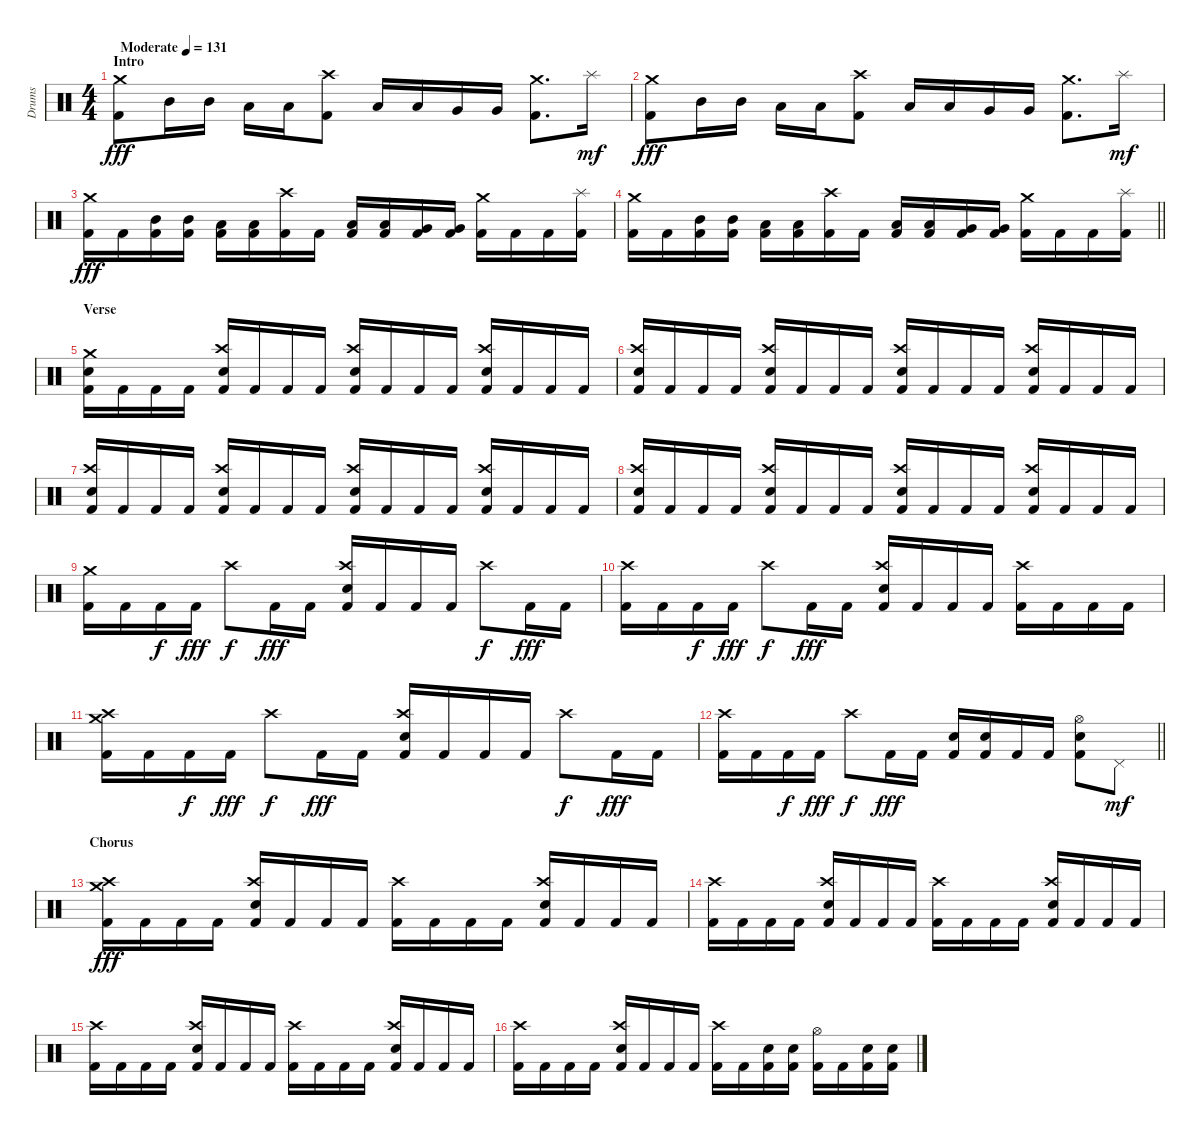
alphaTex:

\track ("Drums" "Drums") {instrument percussion}
\staff {score}
\articulation defaults
\ts (4 4)
\section ("" "Intro")
\tempo (131 "Moderate")
\clef neutral
\ks c
("Crash medium (hit)" "Kick (hit) 2").8{dy fff} "Mid Tom (hit)".16 "Mid Tom (hit)".16 "Low Tom (hit)".16 "Low Tom (hit)".16 ("Crash high (hit)" "Kick (hit) 2").8 "Low Tom (hit)".16 "Low Tom (hit)".16 "Very Low Tom (hit)".16 "Very Low Tom (hit)".16 ("Crash medium (hit)" "Kick (hit) 2").8{d} "Splash (hit)".16{dy mf} |
("Crash medium (hit)" "Kick (hit) 2").8{dy fff} "Mid Tom (hit)".16 "Mid Tom (hit)".16 "Low Tom (hit)".16 "Low Tom (hit)".16 ("Crash high (hit)" "Kick (hit) 2").8 "Low Tom (hit)".16 "Low Tom (hit)".16 "Very Low Tom (hit)".16 "Very Low Tom (hit)".16 ("Crash medium (hit)" "Kick (hit) 2").8{d} "Splash (hit)".16{dy mf} |
("Crash medium (hit)" "Kick (hit) 2").16{dy fff} "Kick (hit) 2".16 ("Mid Tom (hit)" "Kick (hit) 2").16 ("Mid Tom (hit)" "Kick (hit) 2").16 ("Low Tom (hit)" "Kick (hit) 2").16 ("Low Tom (hit)" "Kick (hit) 2").16 ("Crash high (hit)" "Kick (hit) 2").16 "Kick (hit) 2".16 ("Low Tom (hit)" "Kick (hit) 2").16 ("Low Tom (hit)" "Kick (hit) 2").16 ("Very Low Tom (hit)" "Kick (hit) 2").16 ("Very Low Tom (hit)" "Kick (hit) 2").16 ("Crash medium (hit)" "Kick (hit) 2").16 "Kick (hit) 2".16 "Kick (hit) 2".16 ("Splash (hit)" "Kick (hit) 2").16 |
\barLineRight lightlight
("Crash medium (hit)" "Kick (hit) 2").16 "Kick (hit) 2".16 ("Mid Tom (hit)" "Kick (hit) 2").16 ("Mid Tom (hit)" "Kick (hit) 2").16 ("Low Tom (hit)" "Kick (hit) 2").16 ("Low Tom (hit)" "Kick (hit) 2").16 ("Crash high (hit)" "Kick (hit) 2").16 "Kick (hit) 2".16 ("Low Tom (hit)" "Kick (hit) 2").16 ("Low Tom (hit)" "Kick (hit) 2").16 ("Very Low Tom (hit)" "Kick (hit) 2").16 ("Very Low Tom (hit)" "Kick (hit) 2").16 ("Crash medium (hit)" "Kick (hit) 2").16 "Kick (hit) 2".16 "Kick (hit) 2".16 ("Splash (hit)" "Kick (hit) 2").16 |
\section ("" "Verse")
("Crash medium (hit)" "Electric Snare (hit)" "Kick (hit) 2").16 "Kick (hit) 2".16 "Kick (hit) 2".16 "Kick (hit) 2".16 ("Crash high (hit)" "Electric Snare (hit)" "Kick (hit) 2").16 "Kick (hit) 2".16 "Kick (hit) 2".16 "Kick (hit) 2".16 ("Crash high (hit)" "Electric Snare (hit)" "Kick (hit) 2").16 "Kick (hit) 2".16 "Kick (hit) 2".16 "Kick (hit) 2".16 ("Crash high (hit)" "Electric Snare (hit)" "Kick (hit) 2").16 "Kick (hit) 2".16 "Kick (hit) 2".16 "Kick (hit) 2".16 |
("Crash high (hit)" "Electric Snare (hit)" "Kick (hit) 2").16 "Kick (hit) 2".16 "Kick (hit) 2".16 "Kick (hit) 2".16 ("Crash high (hit)" "Electric Snare (hit)" "Kick (hit) 2").16 "Kick (hit) 2".16 "Kick (hit) 2".16 "Kick (hit) 2".16 ("Crash high (hit)" "Electric Snare (hit)" "Kick (hit) 2").16 "Kick (hit) 2".16 "Kick (hit) 2".16 "Kick (hit) 2".16 ("Crash high (hit)" "Electric Snare (hit)" "Kick (hit) 2").16 "Kick (hit) 2".16 "Kick (hit) 2".16 "Kick (hit) 2".16 |
("Crash high (hit)" "Electric Snare (hit)" "Kick (hit) 2").16 "Kick (hit) 2".16 "Kick (hit) 2".16 "Kick (hit) 2".16 ("Crash high (hit)" "Electric Snare (hit)" "Kick (hit) 2").16 "Kick (hit) 2".16 "Kick (hit) 2".16 "Kick (hit) 2".16 ("Crash high (hit)" "Electric Snare (hit)" "Kick (hit) 2").16 "Kick (hit) 2".16 "Kick (hit) 2".16 "Kick (hit) 2".16 ("Crash high (hit)" "Electric Snare (hit)" "Kick (hit) 2").16 "Kick (hit) 2".16 "Kick (hit) 2".16 "Kick (hit) 2".16 |
("Crash high (hit)" "Electric Snare (hit)" "Kick (hit) 2").16 "Kick (hit) 2".16 "Kick (hit) 2".16 "Kick (hit) 2".16 ("Crash high (hit)" "Electric Snare (hit)" "Kick (hit) 2").16 "Kick (hit) 2".16 "Kick (hit) 2".16 "Kick (hit) 2".16 ("Crash high (hit)" "Electric Snare (hit)" "Kick (hit) 2").16 "Kick (hit) 2".16 "Kick (hit) 2".16 "Kick (hit) 2".16 ("Crash high (hit)" "Electric Snare (hit)" "Kick (hit) 2").16 "Kick (hit) 2".16 "Kick (hit) 2".16 "Kick (hit) 2".16 |
("Crash medium (hit)" "Kick (hit) 2").16 "Kick (hit) 2".16 "Kick (hit) 2".16{dy f} "Kick (hit) 2".16{dy fff} "Crash high (hit)".8{dy f} "Kick (hit) 2".16{dy fff} "Kick (hit) 2".16 ("Crash high (hit)" "Electric Snare (hit)" "Kick (hit) 2").16 "Kick (hit) 2".16 "Kick (hit) 2".16 "Kick (hit) 2".16 "Crash high (hit)".8{dy f} "Kick (hit) 2".16{dy fff} "Kick (hit) 2".16 |
("Crash high (hit)" "Kick (hit) 2").16 "Kick (hit) 2".16 "Kick (hit) 2".16{dy f} "Kick (hit) 2".16{dy fff} "Crash high (hit)".8{dy f} "Kick (hit) 2".16{dy fff} "Kick (hit) 2".16 ("Crash high (hit)" "Electric Snare (hit)" "Kick (hit) 2").16 "Kick (hit) 2".16 "Kick (hit) 2".16 "Kick (hit) 2".16 ("Crash high (hit)" "Kick (hit) 2").16 "Kick (hit) 2".16 "Kick (hit) 2".16 "Kick (hit) 2".16 |
("Crash medium (hit)" "Crash high (hit)" "Kick (hit) 2").16 "Kick (hit) 2".16 "Kick (hit) 2".16{dy f} "Kick (hit) 2".16{dy fff} "Crash high (hit)".8{dy f} "Kick (hit) 2".16{dy fff} "Kick (hit) 2".16 ("Crash high (hit)" "Electric Snare (hit)" "Kick (hit) 2").16 "Kick (hit) 2".16 "Kick (hit) 2".16 "Kick (hit) 2".16 "Crash high (hit)".8{dy f} "Kick (hit) 2".16{dy fff} "Kick (hit) 2".16 |
\barLineRight lightlight
("Crash high (hit)" "Kick (hit) 2").16 "Kick (hit) 2".16 "Kick (hit) 2".16{dy f} "Kick (hit) 2".16{dy fff} "Crash high (hit)".8{dy f} "Kick (hit) 2".16{dy fff} "Kick (hit) 2".16 ("Electric Snare (hit)" "Kick (hit) 2").16 ("Electric Snare (hit)" "Kick (hit) 2").16 "Kick (hit) 2".16 "Kick (hit) 2".16 ("Hi-Hat (open)" "Electric Snare (hit)" "Kick (hit) 2").8 "Pedal Hi-Hat (hit)".8{dy mf} |
\section ("" "Chorus")
("Crash medium (hit)" "Crash high (hit)" "Kick (hit) 2").16{dy fff} "Kick (hit) 2".16 "Kick (hit) 2".16 "Kick (hit) 2".16 ("Crash high (hit)" "Electric Snare (hit)" "Kick (hit) 2").16 "Kick (hit) 2".16 "Kick (hit) 2".16 "Kick (hit) 2".16 ("Crash high (hit)" "Kick (hit) 2").16 "Kick (hit) 2".16 "Kick (hit) 2".16 "Kick (hit) 2".16 ("Crash high (hit)" "Electric Snare (hit)" "Kick (hit) 2").16 "Kick (hit) 2".16 "Kick (hit) 2".16 "Kick (hit) 2".16 |
("Crash high (hit)" "Kick (hit) 2").16 "Kick (hit) 2".16 "Kick (hit) 2".16 "Kick (hit) 2".16 ("Crash high (hit)" "Electric Snare (hit)" "Kick (hit) 2").16 "Kick (hit) 2".16 "Kick (hit) 2".16 "Kick (hit) 2".16 ("Crash high (hit)" "Kick (hit) 2").16 "Kick (hit) 2".16 "Kick (hit) 2".16 "Kick (hit) 2".16 ("Crash high (hit)" "Electric Snare (hit)" "Kick (hit) 2").16 "Kick (hit) 2".16 "Kick (hit) 2".16 "Kick (hit) 2".16 |
("Crash high (hit)" "Kick (hit) 2").16 "Kick (hit) 2".16 "Kick (hit) 2".16 "Kick (hit) 2".16 ("Crash high (hit)" "Electric Snare (hit)" "Kick (hit) 2").16 "Kick (hit) 2".16 "Kick (hit) 2".16 "Kick (hit) 2".16 ("Crash high (hit)" "Kick (hit) 2").16 "Kick (hit) 2".16 "Kick (hit) 2".16 "Kick (hit) 2".16 ("Crash high (hit)" "Electric Snare (hit)" "Kick (hit) 2").16 "Kick (hit) 2".16 "Kick (hit) 2".16 "Kick (hit) 2".16 |
("Crash high (hit)" "Kick (hit) 2").16 "Kick (hit) 2".16 "Kick (hit) 2".16 "Kick (hit) 2".16 ("Crash high (hit)" "Electric Snare (hit)" "Kick (hit) 2").16 "Kick (hit) 2".16 "Kick (hit) 2".16 "Kick (hit) 2".16 ("Crash high (hit)" "Kick (hit) 2").16 "Kick (hit) 2".16 ("Electric Snare (hit)" "Kick (hit) 2").16 ("Electric Snare (hit)" "Kick (hit) 2").16 ("Hi-Hat (open)" "Kick (hit) 2").16 "Kick (hit) 2".16 ("Electric Snare (hit)" "Kick (hit) 2").16 ("Electric Snare (hit)" "Kick (hit) 2").16
